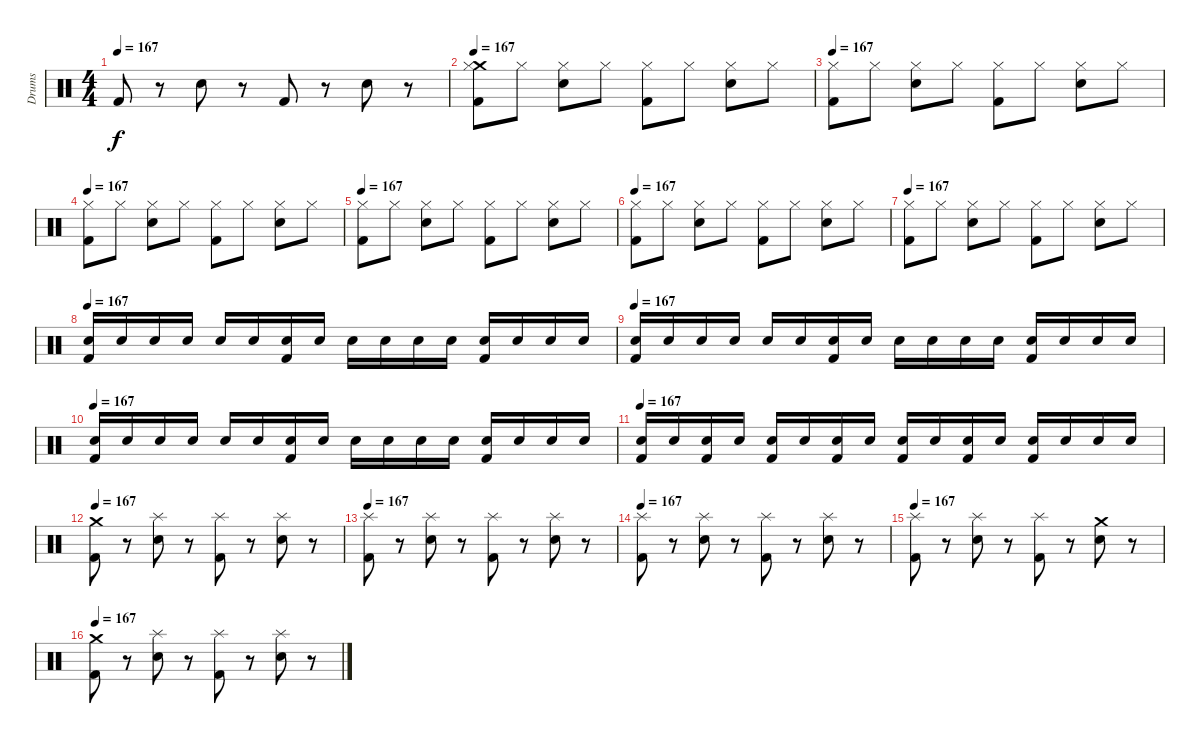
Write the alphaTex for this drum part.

\track ("Drums" "Drums") {instrument percussion}
\staff {score}
\articulation defaults
\ts (4 4)
\tempo 167
\clef neutral
\ks c "Kick (hit) 2".8{dy f}
r.8 "Electric Snare (hit)".8 r.8 "Kick (hit) 2".8 r.8 "Electric Snare (hit)".8 r.8 |
\tempo 167
("Kick (hit) 2" "Crash medium (hit)" "Hi-Hat (closed)").8 "Hi-Hat (closed)".8 ("Electric Snare (hit)" "Hi-Hat (closed)").8 "Hi-Hat (closed)".8 ("Kick (hit) 2" "Hi-Hat (closed)").8 "Hi-Hat (closed)".8 ("Electric Snare (hit)" "Hi-Hat (closed)").8 "Hi-Hat (closed)".8 |
\tempo 167
("Kick (hit) 2" "Hi-Hat (closed)").8 "Hi-Hat (closed)".8 ("Electric Snare (hit)" "Hi-Hat (closed)").8 "Hi-Hat (closed)".8 ("Kick (hit) 2" "Hi-Hat (closed)").8 "Hi-Hat (closed)".8 ("Electric Snare (hit)" "Hi-Hat (closed)").8 "Hi-Hat (closed)".8 |
\tempo 167
("Kick (hit) 2" "Hi-Hat (closed)").8 "Hi-Hat (closed)".8 ("Electric Snare (hit)" "Hi-Hat (closed)").8 "Hi-Hat (closed)".8 ("Kick (hit) 2" "Hi-Hat (closed)").8 "Hi-Hat (closed)".8 ("Electric Snare (hit)" "Hi-Hat (closed)").8 "Hi-Hat (closed)".8 |
\tempo 167
("Kick (hit) 2" "Hi-Hat (closed)").8 "Hi-Hat (closed)".8 ("Electric Snare (hit)" "Hi-Hat (closed)").8 "Hi-Hat (closed)".8 ("Kick (hit) 2" "Hi-Hat (closed)").8 "Hi-Hat (closed)".8 ("Electric Snare (hit)" "Hi-Hat (closed)").8 "Hi-Hat (closed)".8 |
\tempo 167
("Kick (hit) 2" "Hi-Hat (closed)").8 "Hi-Hat (closed)".8 ("Electric Snare (hit)" "Hi-Hat (closed)").8 "Hi-Hat (closed)".8 ("Kick (hit) 2" "Hi-Hat (closed)").8 "Hi-Hat (closed)".8 ("Electric Snare (hit)" "Hi-Hat (closed)").8 "Hi-Hat (closed)".8 |
\tempo 167
("Kick (hit) 2" "Hi-Hat (closed)").8 "Hi-Hat (closed)".8 ("Electric Snare (hit)" "Hi-Hat (closed)").8 "Hi-Hat (closed)".8 ("Kick (hit) 2" "Hi-Hat (closed)").8 "Hi-Hat (closed)".8 ("Electric Snare (hit)" "Hi-Hat (closed)").8 "Hi-Hat (closed)".8 |
\tempo 167
("Kick (hit) 2" "Electric Snare (hit)").16 "Electric Snare (hit)".16 "Electric Snare (hit)".16 "Electric Snare (hit)".16 "Electric Snare (hit)".16 "Electric Snare (hit)".16 ("Kick (hit) 2" "Electric Snare (hit)").16 "Electric Snare (hit)".16 "Electric Snare (hit)".16 "Electric Snare (hit)".16 "Electric Snare (hit)".16 "Electric Snare (hit)".16 ("Kick (hit) 2" "Electric Snare (hit)").16 "Electric Snare (hit)".16 "Electric Snare (hit)".16 "Electric Snare (hit)".16 |
\tempo 167
("Kick (hit) 2" "Electric Snare (hit)").16 "Electric Snare (hit)".16 "Electric Snare (hit)".16 "Electric Snare (hit)".16 "Electric Snare (hit)".16 "Electric Snare (hit)".16 ("Kick (hit) 2" "Electric Snare (hit)").16 "Electric Snare (hit)".16 "Electric Snare (hit)".16 "Electric Snare (hit)".16 "Electric Snare (hit)".16 "Electric Snare (hit)".16 ("Kick (hit) 2" "Electric Snare (hit)").16 "Electric Snare (hit)".16 "Electric Snare (hit)".16 "Electric Snare (hit)".16 |
\tempo 167
("Kick (hit) 2" "Electric Snare (hit)").16 "Electric Snare (hit)".16 "Electric Snare (hit)".16 "Electric Snare (hit)".16 "Electric Snare (hit)".16 "Electric Snare (hit)".16 ("Kick (hit) 2" "Electric Snare (hit)").16 "Electric Snare (hit)".16 "Electric Snare (hit)".16 "Electric Snare (hit)".16 "Electric Snare (hit)".16 "Electric Snare (hit)".16 ("Kick (hit) 2" "Electric Snare (hit)").16 "Electric Snare (hit)".16 "Electric Snare (hit)".16 "Electric Snare (hit)".16 |
\tempo 167
("Kick (hit) 2" "Electric Snare (hit)").16 "Electric Snare (hit)".16 ("Kick (hit) 2" "Electric Snare (hit)").16 "Electric Snare (hit)".16 ("Kick (hit) 2" "Electric Snare (hit)").16 "Electric Snare (hit)".16 ("Kick (hit) 2" "Electric Snare (hit)").16 "Electric Snare (hit)".16 ("Kick (hit) 2" "Electric Snare (hit)").16 "Electric Snare (hit)".16 ("Kick (hit) 2" "Electric Snare (hit)").16 "Electric Snare (hit)".16 ("Kick (hit) 2" "Electric Snare (hit)").16 "Electric Snare (hit)".16 "Electric Snare (hit)".16 "Electric Snare (hit)".16 |
\tempo 167
("Kick (hit) 2" "Crash medium (hit)").8 r.8 ("Splash (hit)" "Electric Snare (hit)").8 r.8 ("Splash (hit)" "Kick (hit) 2").8 r.8 ("Splash (hit)" "Electric Snare (hit)").8 r.8 |
\tempo 167
("Splash (hit)" "Kick (hit) 2").8 r.8 ("Splash (hit)" "Electric Snare (hit)").8 r.8 ("Splash (hit)" "Kick (hit) 2").8 r.8 ("Splash (hit)" "Electric Snare (hit)").8 r.8 |
\tempo 167
("Splash (hit)" "Kick (hit) 2").8 r.8 ("Splash (hit)" "Electric Snare (hit)").8 r.8 ("Splash (hit)" "Kick (hit) 2").8 r.8 ("Splash (hit)" "Electric Snare (hit)").8 r.8 |
\tempo 167
("Splash (hit)" "Kick (hit) 2").8 r.8 ("Splash (hit)" "Electric Snare (hit)").8 r.8 ("Splash (hit)" "Kick (hit) 2").8 r.8 ("Electric Snare (hit)" "Crash medium (hit)").8 r.8 |
\tempo 167
("Kick (hit) 2" "Crash medium (hit)").8 r.8 ("Electric Snare (hit)" "Splash (hit)").8 r.8 ("Splash (hit)" "Kick (hit) 2").8 r.8 ("Electric Snare (hit)" "Splash (hit)").8 r.8
